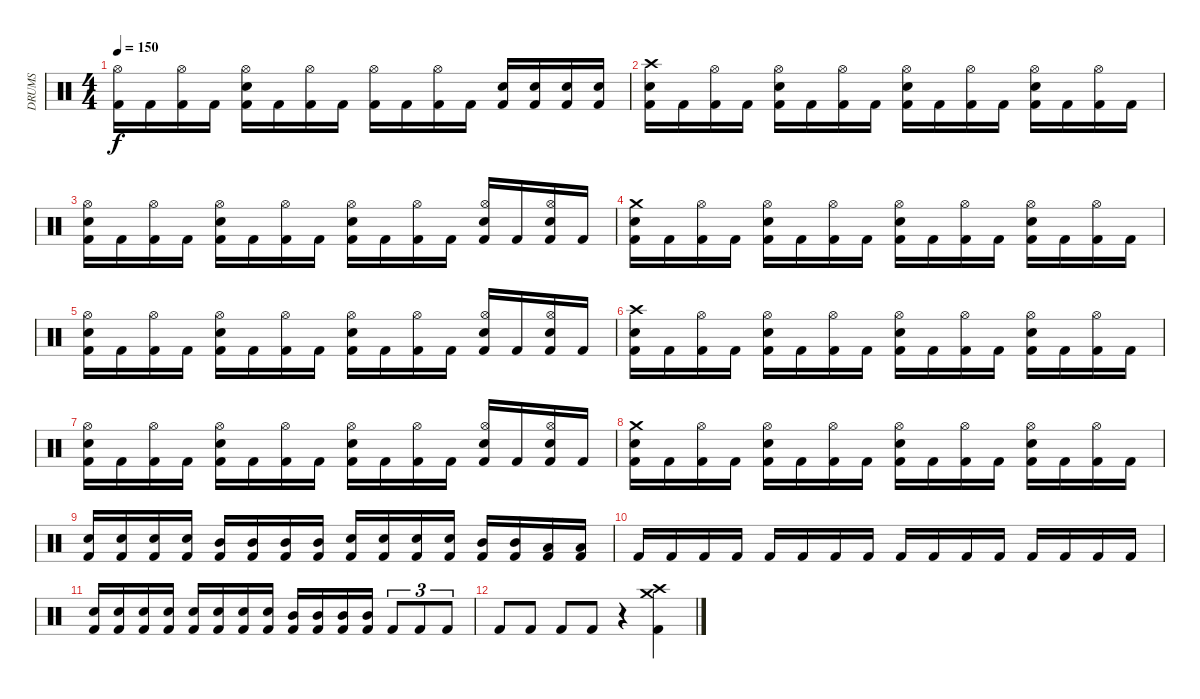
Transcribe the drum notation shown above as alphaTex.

\track ("DRUMS" "DRUMS") {instrument percussion}
\staff {score}
\articulation defaults
\ts (4 4)
\tempo 150
\clef neutral
\ks c
("Kick (hit) 2" "Hi-Hat (open)").16{dy f} "Kick (hit) 2".16 ("Kick (hit) 2" "Hi-Hat (open)").16 "Kick (hit) 2".16 ("Kick (hit) 2" "Snare (hit) 2" "Hi-Hat (open)").16 "Kick (hit) 2".16 ("Kick (hit) 2" "Hi-Hat (open)").16 "Kick (hit) 2".16 ("Kick (hit) 2" "Hi-Hat (open)").16 "Kick (hit) 2".16 ("Kick (hit) 2" "Hi-Hat (open)").16 "Kick (hit) 2".16 ("Kick (hit) 2" "Snare (hit) 2").16 ("Kick (hit) 2" "Snare (hit) 2").16 ("Kick (hit) 2" "Snare (hit) 2").16 ("Kick (hit) 2" "Snare (hit) 2").16 |
("Kick (hit) 2" "Snare (hit) 2" "Crash high (hit)").16 "Kick (hit) 2".16 ("Kick (hit) 2" "Hi-Hat (open)").16 "Kick (hit) 2".16 ("Kick (hit) 2" "Snare (hit) 2" "Hi-Hat (open)").16 "Kick (hit) 2".16 ("Kick (hit) 2" "Hi-Hat (open)").16 "Kick (hit) 2".16 ("Kick (hit) 2" "Snare (hit) 2" "Hi-Hat (open)").16 "Kick (hit) 2".16 ("Kick (hit) 2" "Hi-Hat (open)").16 "Kick (hit) 2".16 ("Kick (hit) 2" "Snare (hit) 2" "Hi-Hat (open)").16 "Kick (hit) 2".16 ("Kick (hit) 2" "Hi-Hat (open)").16 "Kick (hit) 2".16 |
("Kick (hit) 2" "Snare (hit) 2" "Hi-Hat (open)").16 "Kick (hit) 2".16 ("Kick (hit) 2" "Hi-Hat (open)").16 "Kick (hit) 2".16 ("Kick (hit) 2" "Snare (hit) 2" "Hi-Hat (open)").16 "Kick (hit) 2".16 ("Kick (hit) 2" "Hi-Hat (open)").16 "Kick (hit) 2".16 ("Kick (hit) 2" "Snare (hit) 2" "Hi-Hat (open)").16 "Kick (hit) 2".16 ("Kick (hit) 2" "Hi-Hat (open)").16 "Kick (hit) 2".16 ("Kick (hit) 2" "Snare (hit) 2" "Hi-Hat (open)").16 "Kick (hit) 2".16 ("Kick (hit) 2" "Snare (hit) 2" "Hi-Hat (open)").16 "Kick (hit) 2".16 |
("Kick (hit) 2" "Snare (hit) 2" "Crash medium (hit)").16 "Kick (hit) 2".16 ("Kick (hit) 2" "Hi-Hat (open)").16 "Kick (hit) 2".16 ("Kick (hit) 2" "Snare (hit) 2" "Hi-Hat (open)").16 "Kick (hit) 2".16 ("Kick (hit) 2" "Hi-Hat (open)").16 "Kick (hit) 2".16 ("Kick (hit) 2" "Snare (hit) 2" "Hi-Hat (open)").16 "Kick (hit) 2".16 ("Kick (hit) 2" "Hi-Hat (open)").16 "Kick (hit) 2".16 ("Kick (hit) 2" "Snare (hit) 2" "Hi-Hat (open)").16 "Kick (hit) 2".16 ("Kick (hit) 2" "Hi-Hat (open)").16 "Kick (hit) 2".16 |
("Kick (hit) 2" "Snare (hit) 2" "Hi-Hat (open)").16 "Kick (hit) 2".16 ("Kick (hit) 2" "Hi-Hat (open)").16 "Kick (hit) 2".16 ("Kick (hit) 2" "Snare (hit) 2" "Hi-Hat (open)").16 "Kick (hit) 2".16 ("Kick (hit) 2" "Hi-Hat (open)").16 "Kick (hit) 2".16 ("Kick (hit) 2" "Snare (hit) 2" "Hi-Hat (open)").16 "Kick (hit) 2".16 ("Kick (hit) 2" "Hi-Hat (open)").16 "Kick (hit) 2".16 ("Kick (hit) 2" "Snare (hit) 2" "Hi-Hat (open)").16 "Kick (hit) 2".16 ("Kick (hit) 2" "Snare (hit) 2" "Hi-Hat (open)").16 "Kick (hit) 2".16 |
("Kick (hit) 2" "Snare (hit) 2" "Crash high (hit)").16 "Kick (hit) 2".16 ("Kick (hit) 2" "Hi-Hat (open)").16 "Kick (hit) 2".16 ("Kick (hit) 2" "Snare (hit) 2" "Hi-Hat (open)").16 "Kick (hit) 2".16 ("Kick (hit) 2" "Hi-Hat (open)").16 "Kick (hit) 2".16 ("Kick (hit) 2" "Snare (hit) 2" "Hi-Hat (open)").16 "Kick (hit) 2".16 ("Kick (hit) 2" "Hi-Hat (open)").16 "Kick (hit) 2".16 ("Kick (hit) 2" "Snare (hit) 2" "Hi-Hat (open)").16 "Kick (hit) 2".16 ("Kick (hit) 2" "Hi-Hat (open)").16 "Kick (hit) 2".16 |
("Kick (hit) 2" "Snare (hit) 2" "Hi-Hat (open)").16 "Kick (hit) 2".16 ("Kick (hit) 2" "Hi-Hat (open)").16 "Kick (hit) 2".16 ("Kick (hit) 2" "Snare (hit) 2" "Hi-Hat (open)").16 "Kick (hit) 2".16 ("Kick (hit) 2" "Hi-Hat (open)").16 "Kick (hit) 2".16 ("Kick (hit) 2" "Snare (hit) 2" "Hi-Hat (open)").16 "Kick (hit) 2".16 ("Kick (hit) 2" "Hi-Hat (open)").16 "Kick (hit) 2".16 ("Kick (hit) 2" "Snare (hit) 2" "Hi-Hat (open)").16 "Kick (hit) 2".16 ("Kick (hit) 2" "Snare (hit) 2" "Hi-Hat (open)").16 "Kick (hit) 2".16 |
("Kick (hit) 2" "Snare (hit) 2" "Crash medium (hit)").16 "Kick (hit) 2".16 ("Kick (hit) 2" "Hi-Hat (open)").16 "Kick (hit) 2".16 ("Kick (hit) 2" "Snare (hit) 2" "Hi-Hat (open)").16 "Kick (hit) 2".16 ("Kick (hit) 2" "Hi-Hat (open)").16 "Kick (hit) 2".16 ("Kick (hit) 2" "Snare (hit) 2" "Hi-Hat (open)").16 "Kick (hit) 2".16 ("Kick (hit) 2" "Hi-Hat (open)").16 "Kick (hit) 2".16 ("Kick (hit) 2" "Snare (hit) 2" "Hi-Hat (open)").16 "Kick (hit) 2".16 ("Kick (hit) 2" "Hi-Hat (open)").16 "Kick (hit) 2".16 |
("Kick (hit) 2" "Snare (hit) 2").16 ("Kick (hit) 2" "Snare (hit) 2").16 ("Kick (hit) 2" "Snare (hit) 2").16 ("Kick (hit) 2" "Snare (hit) 2").16 ("Kick (hit) 2" "Mid Tom (hit)").16 ("Kick (hit) 2" "Mid Tom (hit)").16 ("Kick (hit) 2" "Mid Tom (hit)").16 ("Kick (hit) 2" "Mid Tom (hit)").16 ("Kick (hit) 2" "Snare (hit) 2").16 ("Kick (hit) 2" "Snare (hit) 2").16 ("Kick (hit) 2" "Snare (hit) 2").16 ("Kick (hit) 2" "Snare (hit) 2").16 ("Kick (hit) 2" "Mid Tom (hit)").16 ("Kick (hit) 2" "Mid Tom (hit)").16 ("Kick (hit) 2" "Low Tom (hit)").16 ("Kick (hit) 2" "Low Tom (hit)").16 |
"Kick (hit) 2".16 "Kick (hit) 2".16 "Kick (hit) 2".16 "Kick (hit) 2".16 "Kick (hit) 2".16 "Kick (hit) 2".16 "Kick (hit) 2".16 "Kick (hit) 2".16 "Kick (hit) 2".16 "Kick (hit) 2".16 "Kick (hit) 2".16 "Kick (hit) 2".16 "Kick (hit) 2".16 "Kick (hit) 2".16 "Kick (hit) 2".16 "Kick (hit) 2".16 |
("Kick (hit) 2" "Snare (hit) 2").16 ("Kick (hit) 2" "Snare (hit) 2").16 ("Kick (hit) 2" "Snare (hit) 2").16 ("Kick (hit) 2" "Snare (hit) 2").16 ("Kick (hit) 2" "Snare (hit) 2").16 ("Kick (hit) 2" "Snare (hit) 2").16 ("Kick (hit) 2" "Snare (hit) 2").16 ("Kick (hit) 2" "Snare (hit) 2").16 ("Kick (hit) 2" "Mid Tom (hit)").16 ("Kick (hit) 2" "Mid Tom (hit)").16 ("Kick (hit) 2" "Mid Tom (hit)").16 ("Kick (hit) 2" "Mid Tom (hit)").16 "Kick (hit) 2".8{tu (3 2)} "Kick (hit) 2".8{tu (3 2)} "Kick (hit) 2".8{tu (3 2)} |
"Kick (hit) 2".8 "Kick (hit) 2".8 "Kick (hit) 2".8 "Kick (hit) 2".8 r.4 ("Kick (hit) 2" "Crash high (hit)" "Crash medium (hit)").4
